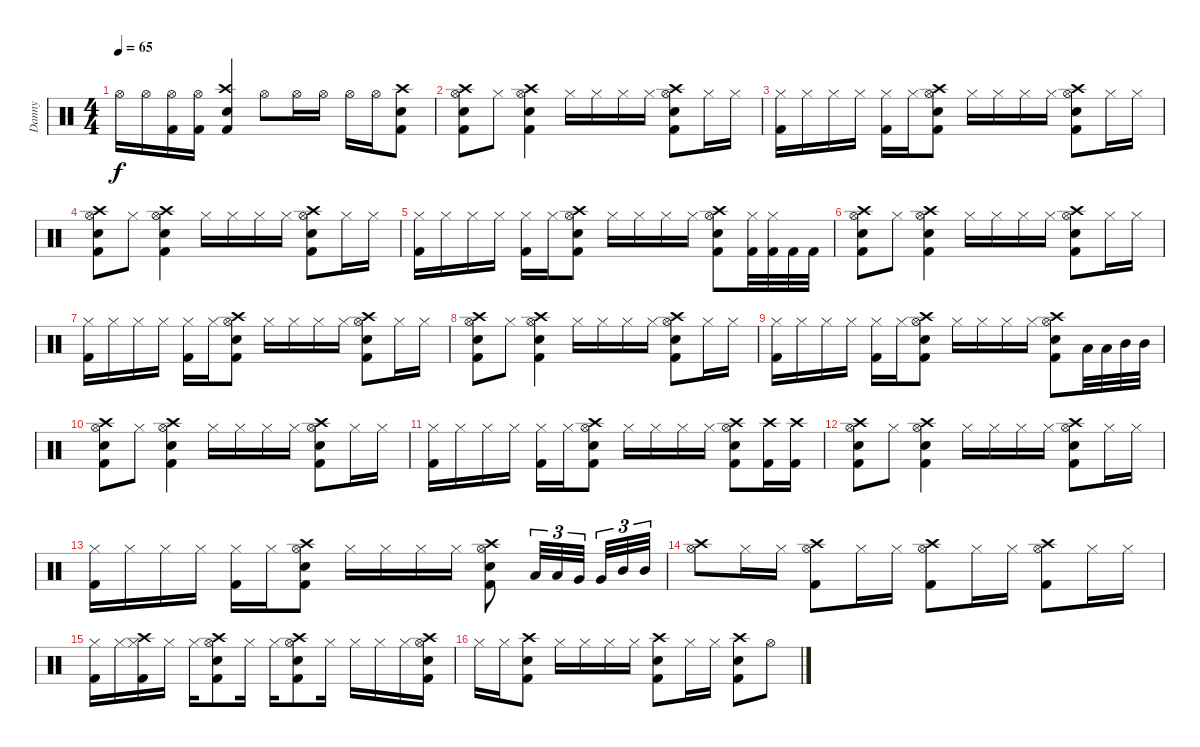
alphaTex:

\track ("Danny" "Danny") {instrument percussion}
\staff {score}
\articulation defaults
\ts (4 4)
\tempo 65
\clef neutral
\ks c "Hi-Hat (open)".16{dy f} "Hi-Hat (open)".16
("Hi-Hat (open)" "Kick (hit) 2").16 ("Hi-Hat (open)" "Kick (hit) 2").16 ("Crash high (hit)" "Snare (hit) 2" "Kick (hit) 2").4 "Hi-Hat (open)".8 "Hi-Hat (open)".16 "Hi-Hat (open)".16 "Hi-Hat (open)".16 "Hi-Hat (open)".16 ("Crash high (hit)" "Snare (hit) 2" "Kick (hit) 2").8 |
("Crash high (hit)" "Hi-Hat (open)" "Snare (hit) 2" "Kick (hit) 2").8 "Hi-Hat (closed)".8 ("Crash high (hit)" "Hi-Hat (open)" "Snare (hit) 2" "Kick (hit) 2").4 "Hi-Hat (closed)".16 "Hi-Hat (closed)".16 "Hi-Hat (closed)".16 "Hi-Hat (closed)".16 ("Crash high (hit)" "Hi-Hat (open)" "Snare (hit) 2" "Kick (hit) 2").8 "Hi-Hat (closed)".16 "Hi-Hat (closed)".16 |
("Hi-Hat (closed)" "Kick (hit) 2").16 "Hi-Hat (closed)".16 "Hi-Hat (closed)".16 "Hi-Hat (closed)".16 ("Hi-Hat (closed)" "Kick (hit) 2").16 "Hi-Hat (closed)".16 ("Crash high (hit)" "Hi-Hat (open)" "Snare (hit) 2" "Kick (hit) 2").8 "Hi-Hat (closed)".16 "Hi-Hat (closed)".16 "Hi-Hat (closed)".16 "Hi-Hat (closed)".16 ("Crash high (hit)" "Hi-Hat (open)" "Snare (hit) 2" "Kick (hit) 2").8 "Hi-Hat (closed)".16 "Hi-Hat (closed)".16 |
("Crash high (hit)" "Hi-Hat (open)" "Snare (hit) 2" "Kick (hit) 2").8 "Hi-Hat (closed)".8 ("Crash high (hit)" "Hi-Hat (open)" "Snare (hit) 2" "Kick (hit) 2").4 "Hi-Hat (closed)".16 "Hi-Hat (closed)".16 "Hi-Hat (closed)".16 "Hi-Hat (closed)".16 ("Crash high (hit)" "Hi-Hat (open)" "Snare (hit) 2" "Kick (hit) 2").8 "Hi-Hat (closed)".16 "Hi-Hat (closed)".16 |
("Hi-Hat (closed)" "Kick (hit) 2").16 "Hi-Hat (closed)".16 "Hi-Hat (closed)".16 "Hi-Hat (closed)".16 ("Hi-Hat (closed)" "Kick (hit) 2").16 "Hi-Hat (closed)".16 ("Crash high (hit)" "Hi-Hat (open)" "Snare (hit) 2" "Kick (hit) 2").8 "Hi-Hat (closed)".16 "Hi-Hat (closed)".16 "Hi-Hat (closed)".16 "Hi-Hat (closed)".16 ("Crash high (hit)" "Hi-Hat (open)" "Snare (hit) 2" "Kick (hit) 2").8 ("Hi-Hat (closed)" "Kick (hit) 2").32 ("Hi-Hat (closed)" "Kick (hit) 2").32 "Kick (hit) 2".32 "Kick (hit) 2".32 |
("Crash high (hit)" "Hi-Hat (open)" "Snare (hit) 2" "Kick (hit) 2").8 "Hi-Hat (closed)".8 ("Crash high (hit)" "Hi-Hat (open)" "Snare (hit) 2" "Kick (hit) 2").4 "Hi-Hat (closed)".16 "Hi-Hat (closed)".16 "Hi-Hat (closed)".16 "Hi-Hat (closed)".16 ("Crash high (hit)" "Hi-Hat (open)" "Snare (hit) 2" "Kick (hit) 2").8 "Hi-Hat (closed)".16 "Hi-Hat (closed)".16 |
("Hi-Hat (closed)" "Kick (hit) 2").16 "Hi-Hat (closed)".16 "Hi-Hat (closed)".16 "Hi-Hat (closed)".16 ("Hi-Hat (closed)" "Kick (hit) 2").16 "Hi-Hat (closed)".16 ("Crash high (hit)" "Hi-Hat (open)" "Snare (hit) 2" "Kick (hit) 2").8 "Hi-Hat (closed)".16 "Hi-Hat (closed)".16 "Hi-Hat (closed)".16 "Hi-Hat (closed)".16 ("Crash high (hit)" "Hi-Hat (open)" "Snare (hit) 2" "Kick (hit) 2").8 "Hi-Hat (closed)".16 "Hi-Hat (closed)".16 |
("Crash high (hit)" "Hi-Hat (open)" "Snare (hit) 2" "Kick (hit) 2").8 "Hi-Hat (closed)".8 ("Crash high (hit)" "Hi-Hat (open)" "Snare (hit) 2" "Kick (hit) 2").4 "Hi-Hat (closed)".16 "Hi-Hat (closed)".16 "Hi-Hat (closed)".16 "Hi-Hat (closed)".16 ("Crash high (hit)" "Hi-Hat (open)" "Snare (hit) 2" "Kick (hit) 2").8 "Hi-Hat (closed)".16 "Hi-Hat (closed)".16 |
("Hi-Hat (closed)" "Kick (hit) 2").16 "Hi-Hat (closed)".16 "Hi-Hat (closed)".16 "Hi-Hat (closed)".16 ("Hi-Hat (closed)" "Kick (hit) 2").16 "Hi-Hat (closed)".16 ("Crash high (hit)" "Hi-Hat (open)" "Snare (hit) 2" "Kick (hit) 2").8 "Hi-Hat (closed)".16 "Hi-Hat (closed)".16 "Hi-Hat (closed)".16 "Hi-Hat (closed)".16 ("Crash high (hit)" "Hi-Hat (open)" "Snare (hit) 2" "Kick (hit) 2").8 "Low Floor Tom (hit)".32 "Low Floor Tom (hit)".32 "Mid Tom (hit)".32 "Mid Tom (hit)".32 |
("Crash high (hit)" "Hi-Hat (open)" "Snare (hit) 2" "Kick (hit) 2").8 "Hi-Hat (closed)".8 ("Crash high (hit)" "Hi-Hat (open)" "Snare (hit) 2" "Kick (hit) 2").4 "Hi-Hat (closed)".16 "Hi-Hat (closed)".16 "Hi-Hat (closed)".16 "Hi-Hat (closed)".16 ("Crash high (hit)" "Hi-Hat (open)" "Snare (hit) 2" "Kick (hit) 2").8 "Hi-Hat (closed)".16 "Hi-Hat (closed)".16 |
("Hi-Hat (closed)" "Kick (hit) 2").16 "Hi-Hat (closed)".16 "Hi-Hat (closed)".16 "Hi-Hat (closed)".16 ("Hi-Hat (closed)" "Kick (hit) 2").16 "Hi-Hat (closed)".16 ("Crash high (hit)" "Hi-Hat (open)" "Snare (hit) 2" "Kick (hit) 2").8 "Hi-Hat (closed)".16 "Hi-Hat (closed)".16 "Hi-Hat (closed)".16 "Hi-Hat (closed)".16 ("Crash high (hit)" "Hi-Hat (open)" "Snare (hit) 2" "Kick (hit) 2").8 ("Crash high (hit)" "Kick (hit) 2").16 ("Crash high (hit)" "Kick (hit) 2").16 |
("Crash high (hit)" "Hi-Hat (open)" "Snare (hit) 2" "Kick (hit) 2").8 "Hi-Hat (closed)".8 ("Crash high (hit)" "Hi-Hat (open)" "Snare (hit) 2" "Kick (hit) 2").4 "Hi-Hat (closed)".16 "Hi-Hat (closed)".16 "Hi-Hat (closed)".16 "Hi-Hat (closed)".16 ("Crash high (hit)" "Hi-Hat (open)" "Snare (hit) 2" "Kick (hit) 2").8 "Hi-Hat (closed)".16 "Hi-Hat (closed)".16 |
("Hi-Hat (closed)" "Kick (hit) 2").16 "Hi-Hat (closed)".16 "Hi-Hat (closed)".16 "Hi-Hat (closed)".16 ("Hi-Hat (closed)" "Kick (hit) 2").16 "Hi-Hat (closed)".16 ("Crash high (hit)" "Hi-Hat (open)" "Snare (hit) 2" "Kick (hit) 2").8 "Hi-Hat (closed)".16 "Hi-Hat (closed)".16 "Hi-Hat (closed)".16 "Hi-Hat (closed)".16 ("Crash high (hit)" "Hi-Hat (open)" "Snare (hit) 2" "Kick (hit) 2").8 "Low Floor Tom (hit)".32{tu (3 2)} "Low Floor Tom (hit)".32{tu (3 2)} "Very Low Tom (hit)".32{tu (3 2)} "Very Low Tom (hit)".32{tu (3 2)} "Mid Tom (hit)".32{tu (3 2)} "Mid Tom (hit)".32{tu (3 2)} |
("Crash high (hit)" "Hi-Hat (open)").8 "Hi-Hat (closed)".16 "Hi-Hat (closed)".16 ("Crash high (hit)" "Hi-Hat (open)" "Kick (hit) 2").8 "Hi-Hat (closed)".16 "Hi-Hat (closed)".16 ("Crash high (hit)" "Hi-Hat (open)" "Kick (hit) 2").8 "Hi-Hat (closed)".16 "Hi-Hat (closed)".16 ("Crash high (hit)" "Hi-Hat (open)" "Kick (hit) 2").8 "Hi-Hat (closed)".16 "Hi-Hat (closed)".16 |
("Hi-Hat (closed)" "Kick (hit) 2").16 "Hi-Hat (closed)".16 ("Crash high (hit)" "Hi-Hat (closed)" "Kick (hit) 2").16 "Hi-Hat (closed)".16 "Hi-Hat (closed)".16 ("Crash high (hit)" "Hi-Hat (open)" "Snare (hit) 2" "Kick (hit) 2").8 "Hi-Hat (closed)".16 "Hi-Hat (closed)".16 ("Crash high (hit)" "Hi-Hat (open)" "Snare (hit) 2" "Kick (hit) 2").8 "Hi-Hat (closed)".16 "Hi-Hat (closed)".16 "Hi-Hat (closed)".16 "Hi-Hat (closed)".16 ("Crash high (hit)" "Hi-Hat (open)" "Snare (hit) 2" "Kick (hit) 2").16 |
"Hi-Hat (closed)".16 "Hi-Hat (closed)".16 ("Crash high (hit)" "Snare (hit) 2" "Kick (hit) 2").8 "Hi-Hat (closed)".16 "Hi-Hat (closed)".16 "Hi-Hat (closed)".16 "Hi-Hat (closed)".16 ("Crash high (hit)" "Snare (hit) 2" "Kick (hit) 2").8 "Hi-Hat (closed)".16 "Hi-Hat (closed)".16 ("Crash high (hit)" "Snare (hit) 2" "Kick (hit) 2").8 "Hi-Hat (open)".8
